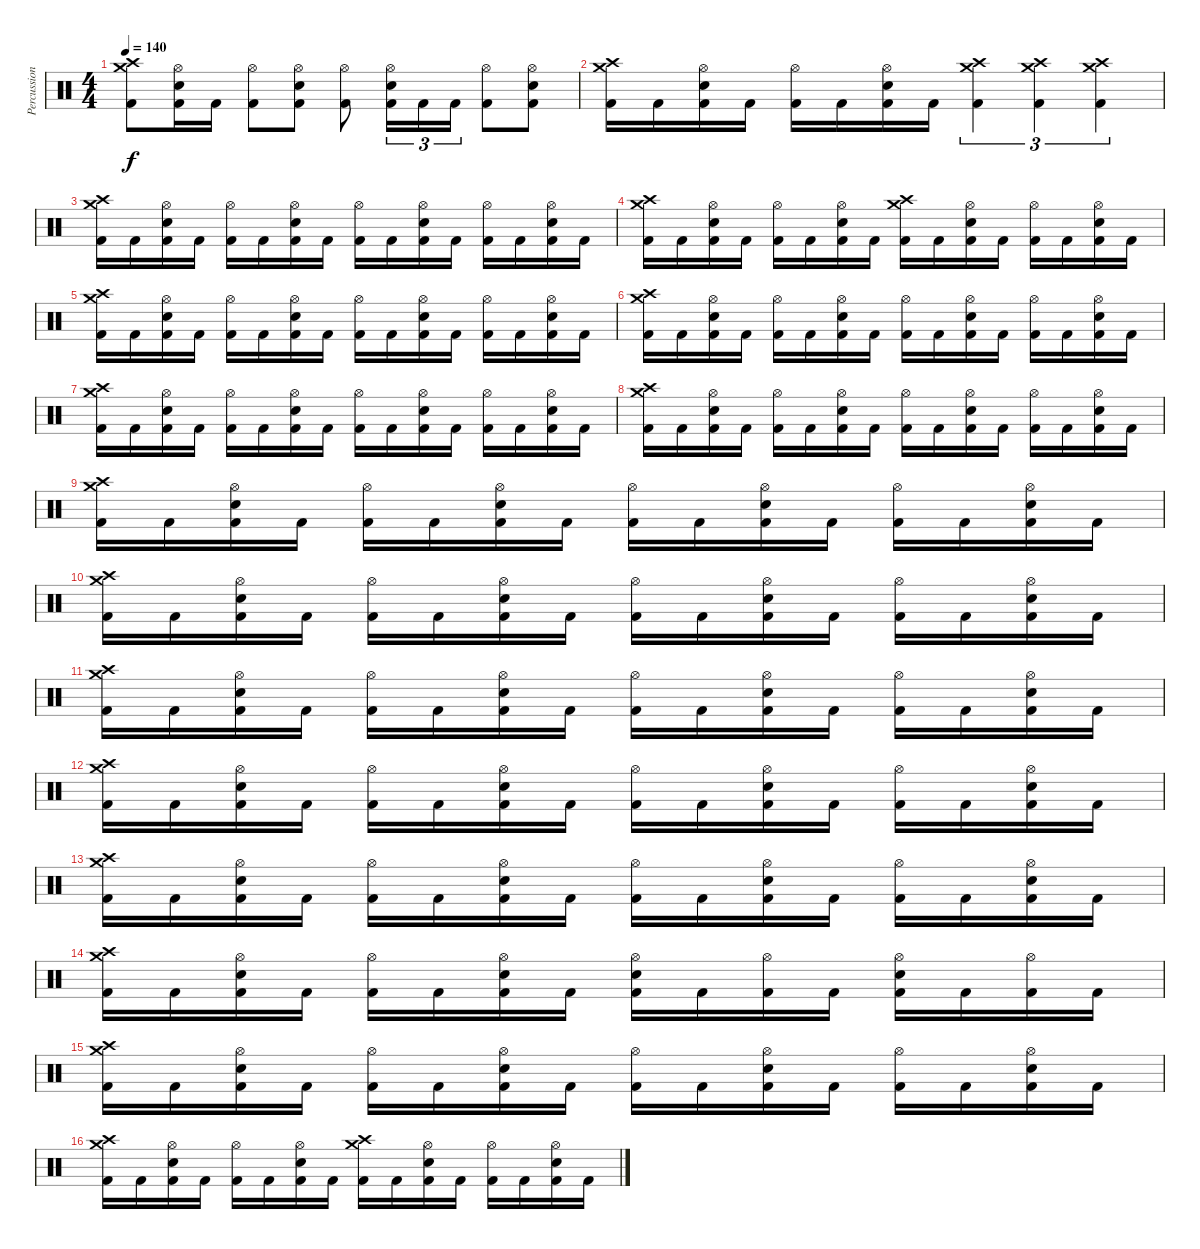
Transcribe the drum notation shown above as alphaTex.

\track ("Percussion" "Percussion") {instrument percussion}
\staff {score}
\articulation defaults
\ts (4 4)
\tempo 140
\clef neutral
\ks c
("Kick (hit) 2" "Crash high (hit)" "Crash medium (hit)").8{dy f} ("Kick (hit) 2" "Electric Snare (hit)" "Hi-Hat (open)").16 "Kick (hit) 2".16 ("Kick (hit) 2" "Hi-Hat (open)").8 ("Kick (hit) 2" "Electric Snare (hit)" "Hi-Hat (open)").8 ("Kick (hit) 2" "Hi-Hat (open)").8 ("Kick (hit) 2" "Electric Snare (hit)" "Hi-Hat (open)").16{tu (3 2)} "Kick (hit) 2".16{tu (3 2)} "Kick (hit) 2".16{tu (3 2)} ("Kick (hit) 2" "Hi-Hat (open)").8 ("Kick (hit) 2" "Electric Snare (hit)" "Hi-Hat (open)").8 |
("Kick (hit) 2" "Crash high (hit)" "Crash medium (hit)").16 "Kick (hit) 2".16 ("Kick (hit) 2" "Electric Snare (hit)" "Hi-Hat (open)").16 "Kick (hit) 2".16 ("Kick (hit) 2" "Hi-Hat (open)").16 "Kick (hit) 2".16 ("Kick (hit) 2" "Electric Snare (hit)" "Hi-Hat (open)").16 "Kick (hit) 2".16 ("Kick (hit) 2" "Crash high (hit)" "Crash medium (hit)").4{tu (3 2)} ("Kick (hit) 2" "Crash high (hit)" "Crash medium (hit)").4{tu (3 2)} ("Kick (hit) 2" "Crash high (hit)" "Crash medium (hit)").4{tu (3 2)} |
("Kick (hit) 2" "Crash high (hit)" "Crash medium (hit)").16 "Kick (hit) 2".16 ("Kick (hit) 2" "Electric Snare (hit)" "Hi-Hat (open)").16 "Kick (hit) 2".16 ("Kick (hit) 2" "Hi-Hat (open)").16 "Kick (hit) 2".16 ("Kick (hit) 2" "Electric Snare (hit)" "Hi-Hat (open)").16 "Kick (hit) 2".16 ("Kick (hit) 2" "Hi-Hat (open)").16 "Kick (hit) 2".16 ("Kick (hit) 2" "Electric Snare (hit)" "Hi-Hat (open)").16 "Kick (hit) 2".16 ("Kick (hit) 2" "Hi-Hat (open)").16 "Kick (hit) 2".16 ("Kick (hit) 2" "Electric Snare (hit)" "Hi-Hat (open)").16 "Kick (hit) 2".16 |
("Kick (hit) 2" "Crash high (hit)" "Crash medium (hit)").16 "Kick (hit) 2".16 ("Kick (hit) 2" "Electric Snare (hit)" "Hi-Hat (open)").16 "Kick (hit) 2".16 ("Kick (hit) 2" "Hi-Hat (open)").16 "Kick (hit) 2".16 ("Kick (hit) 2" "Electric Snare (hit)" "Hi-Hat (open)").16 "Kick (hit) 2".16 ("Kick (hit) 2" "Crash high (hit)" "Crash medium (hit)").16 "Kick (hit) 2".16 ("Kick (hit) 2" "Electric Snare (hit)" "Hi-Hat (open)").16 "Kick (hit) 2".16 ("Kick (hit) 2" "Hi-Hat (open)").16 "Kick (hit) 2".16 ("Kick (hit) 2" "Electric Snare (hit)" "Hi-Hat (open)").16 "Kick (hit) 2".16 |
("Kick (hit) 2" "Crash high (hit)" "Crash medium (hit)").16 "Kick (hit) 2".16 ("Kick (hit) 2" "Electric Snare (hit)" "Hi-Hat (open)").16 "Kick (hit) 2".16 ("Kick (hit) 2" "Hi-Hat (open)").16 "Kick (hit) 2".16 ("Kick (hit) 2" "Electric Snare (hit)" "Hi-Hat (open)").16 "Kick (hit) 2".16 ("Kick (hit) 2" "Hi-Hat (open)").16 "Kick (hit) 2".16 ("Kick (hit) 2" "Electric Snare (hit)" "Hi-Hat (open)").16 "Kick (hit) 2".16 ("Kick (hit) 2" "Hi-Hat (open)").16 "Kick (hit) 2".16 ("Kick (hit) 2" "Electric Snare (hit)" "Hi-Hat (open)").16 "Kick (hit) 2".16 |
("Kick (hit) 2" "Crash high (hit)" "Crash medium (hit)").16 "Kick (hit) 2".16 ("Kick (hit) 2" "Electric Snare (hit)" "Hi-Hat (open)").16 "Kick (hit) 2".16 ("Kick (hit) 2" "Hi-Hat (open)").16 "Kick (hit) 2".16 ("Kick (hit) 2" "Electric Snare (hit)" "Hi-Hat (open)").16 "Kick (hit) 2".16 ("Kick (hit) 2" "Hi-Hat (open)").16 "Kick (hit) 2".16 ("Kick (hit) 2" "Electric Snare (hit)" "Hi-Hat (open)").16 "Kick (hit) 2".16 ("Kick (hit) 2" "Hi-Hat (open)").16 "Kick (hit) 2".16 ("Kick (hit) 2" "Electric Snare (hit)" "Hi-Hat (open)").16 "Kick (hit) 2".16 |
("Kick (hit) 2" "Crash high (hit)" "Crash medium (hit)").16 "Kick (hit) 2".16 ("Kick (hit) 2" "Electric Snare (hit)" "Hi-Hat (open)").16 "Kick (hit) 2".16 ("Kick (hit) 2" "Hi-Hat (open)").16 "Kick (hit) 2".16 ("Kick (hit) 2" "Electric Snare (hit)" "Hi-Hat (open)").16 "Kick (hit) 2".16 ("Kick (hit) 2" "Hi-Hat (open)").16 "Kick (hit) 2".16 ("Kick (hit) 2" "Electric Snare (hit)" "Hi-Hat (open)").16 "Kick (hit) 2".16 ("Kick (hit) 2" "Hi-Hat (open)").16 "Kick (hit) 2".16 ("Kick (hit) 2" "Electric Snare (hit)" "Hi-Hat (open)").16 "Kick (hit) 2".16 |
("Kick (hit) 2" "Crash high (hit)" "Crash medium (hit)").16 "Kick (hit) 2".16 ("Kick (hit) 2" "Electric Snare (hit)" "Hi-Hat (open)").16 "Kick (hit) 2".16 ("Kick (hit) 2" "Hi-Hat (open)").16 "Kick (hit) 2".16 ("Kick (hit) 2" "Electric Snare (hit)" "Hi-Hat (open)").16 "Kick (hit) 2".16 ("Kick (hit) 2" "Hi-Hat (open)").16 "Kick (hit) 2".16 ("Kick (hit) 2" "Electric Snare (hit)" "Hi-Hat (open)").16 "Kick (hit) 2".16 ("Kick (hit) 2" "Hi-Hat (open)").16 "Kick (hit) 2".16 ("Kick (hit) 2" "Electric Snare (hit)" "Hi-Hat (open)").16 "Kick (hit) 2".16 |
("Kick (hit) 2" "Crash high (hit)" "Crash medium (hit)").16 "Kick (hit) 2".16 ("Kick (hit) 2" "Electric Snare (hit)" "Hi-Hat (open)").16 "Kick (hit) 2".16 ("Kick (hit) 2" "Hi-Hat (open)").16 "Kick (hit) 2".16 ("Kick (hit) 2" "Electric Snare (hit)" "Hi-Hat (open)").16 "Kick (hit) 2".16 ("Kick (hit) 2" "Hi-Hat (open)").16 "Kick (hit) 2".16 ("Kick (hit) 2" "Electric Snare (hit)" "Hi-Hat (open)").16 "Kick (hit) 2".16 ("Kick (hit) 2" "Hi-Hat (open)").16 "Kick (hit) 2".16 ("Kick (hit) 2" "Electric Snare (hit)" "Hi-Hat (open)").16 "Kick (hit) 2".16 |
("Kick (hit) 2" "Crash high (hit)" "Crash medium (hit)").16 "Kick (hit) 2".16 ("Kick (hit) 2" "Electric Snare (hit)" "Hi-Hat (open)").16 "Kick (hit) 2".16 ("Kick (hit) 2" "Hi-Hat (open)").16 "Kick (hit) 2".16 ("Kick (hit) 2" "Electric Snare (hit)" "Hi-Hat (open)").16 "Kick (hit) 2".16 ("Kick (hit) 2" "Hi-Hat (open)").16 "Kick (hit) 2".16 ("Kick (hit) 2" "Electric Snare (hit)" "Hi-Hat (open)").16 "Kick (hit) 2".16 ("Kick (hit) 2" "Hi-Hat (open)").16 "Kick (hit) 2".16 ("Kick (hit) 2" "Electric Snare (hit)" "Hi-Hat (open)").16 "Kick (hit) 2".16 |
("Kick (hit) 2" "Crash high (hit)" "Crash medium (hit)").16 "Kick (hit) 2".16 ("Kick (hit) 2" "Electric Snare (hit)" "Hi-Hat (open)").16 "Kick (hit) 2".16 ("Kick (hit) 2" "Hi-Hat (open)").16 "Kick (hit) 2".16 ("Kick (hit) 2" "Electric Snare (hit)" "Hi-Hat (open)").16 "Kick (hit) 2".16 ("Kick (hit) 2" "Hi-Hat (open)").16 "Kick (hit) 2".16 ("Kick (hit) 2" "Electric Snare (hit)" "Hi-Hat (open)").16 "Kick (hit) 2".16 ("Kick (hit) 2" "Hi-Hat (open)").16 "Kick (hit) 2".16 ("Kick (hit) 2" "Electric Snare (hit)" "Hi-Hat (open)").16 "Kick (hit) 2".16 |
("Kick (hit) 2" "Crash high (hit)" "Crash medium (hit)").16 "Kick (hit) 2".16 ("Kick (hit) 2" "Electric Snare (hit)" "Hi-Hat (open)").16 "Kick (hit) 2".16 ("Kick (hit) 2" "Hi-Hat (open)").16 "Kick (hit) 2".16 ("Kick (hit) 2" "Electric Snare (hit)" "Hi-Hat (open)").16 "Kick (hit) 2".16 ("Kick (hit) 2" "Hi-Hat (open)").16 "Kick (hit) 2".16 ("Kick (hit) 2" "Electric Snare (hit)" "Hi-Hat (open)").16 "Kick (hit) 2".16 ("Kick (hit) 2" "Hi-Hat (open)").16 "Kick (hit) 2".16 ("Kick (hit) 2" "Electric Snare (hit)" "Hi-Hat (open)").16 "Kick (hit) 2".16 |
("Kick (hit) 2" "Crash high (hit)" "Crash medium (hit)").16 "Kick (hit) 2".16 ("Kick (hit) 2" "Electric Snare (hit)" "Hi-Hat (open)").16 "Kick (hit) 2".16 ("Kick (hit) 2" "Hi-Hat (open)").16 "Kick (hit) 2".16 ("Kick (hit) 2" "Electric Snare (hit)" "Hi-Hat (open)").16 "Kick (hit) 2".16 ("Kick (hit) 2" "Hi-Hat (open)").16 "Kick (hit) 2".16 ("Kick (hit) 2" "Electric Snare (hit)" "Hi-Hat (open)").16 "Kick (hit) 2".16 ("Kick (hit) 2" "Hi-Hat (open)").16 "Kick (hit) 2".16 ("Kick (hit) 2" "Electric Snare (hit)" "Hi-Hat (open)").16 "Kick (hit) 2".16 |
("Kick (hit) 2" "Crash high (hit)" "Crash medium (hit)").16 "Kick (hit) 2".16 ("Kick (hit) 2" "Electric Snare (hit)" "Hi-Hat (open)").16 "Kick (hit) 2".16 ("Kick (hit) 2" "Hi-Hat (open)").16 "Kick (hit) 2".16 ("Kick (hit) 2" "Electric Snare (hit)" "Hi-Hat (open)").16 "Kick (hit) 2".16 ("Kick (hit) 2" "Hi-Hat (open)" "Electric Snare (hit)").16 "Kick (hit) 2".16 ("Kick (hit) 2" "Hi-Hat (open)").16 "Kick (hit) 2".16 ("Kick (hit) 2" "Electric Snare (hit)" "Hi-Hat (open)").16 "Kick (hit) 2".16 ("Kick (hit) 2" "Hi-Hat (open)").16 "Kick (hit) 2".16 |
("Kick (hit) 2" "Crash high (hit)" "Crash medium (hit)").16 "Kick (hit) 2".16 ("Kick (hit) 2" "Electric Snare (hit)" "Hi-Hat (open)").16 "Kick (hit) 2".16 ("Kick (hit) 2" "Hi-Hat (open)").16 "Kick (hit) 2".16 ("Kick (hit) 2" "Electric Snare (hit)" "Hi-Hat (open)").16 "Kick (hit) 2".16 ("Kick (hit) 2" "Hi-Hat (open)").16 "Kick (hit) 2".16 ("Kick (hit) 2" "Electric Snare (hit)" "Hi-Hat (open)").16 "Kick (hit) 2".16 ("Kick (hit) 2" "Hi-Hat (open)").16 "Kick (hit) 2".16 ("Kick (hit) 2" "Electric Snare (hit)" "Hi-Hat (open)").16 "Kick (hit) 2".16 |
("Kick (hit) 2" "Crash high (hit)" "Crash medium (hit)").16 "Kick (hit) 2".16 ("Kick (hit) 2" "Electric Snare (hit)" "Hi-Hat (open)").16 "Kick (hit) 2".16 ("Kick (hit) 2" "Hi-Hat (open)").16 "Kick (hit) 2".16 ("Kick (hit) 2" "Electric Snare (hit)" "Hi-Hat (open)").16 "Kick (hit) 2".16 ("Kick (hit) 2" "Crash high (hit)" "Crash medium (hit)").16 "Kick (hit) 2".16 ("Kick (hit) 2" "Electric Snare (hit)" "Hi-Hat (open)").16 "Kick (hit) 2".16 ("Kick (hit) 2" "Hi-Hat (open)").16 "Kick (hit) 2".16 ("Kick (hit) 2" "Electric Snare (hit)" "Hi-Hat (open)").16 "Kick (hit) 2".16
